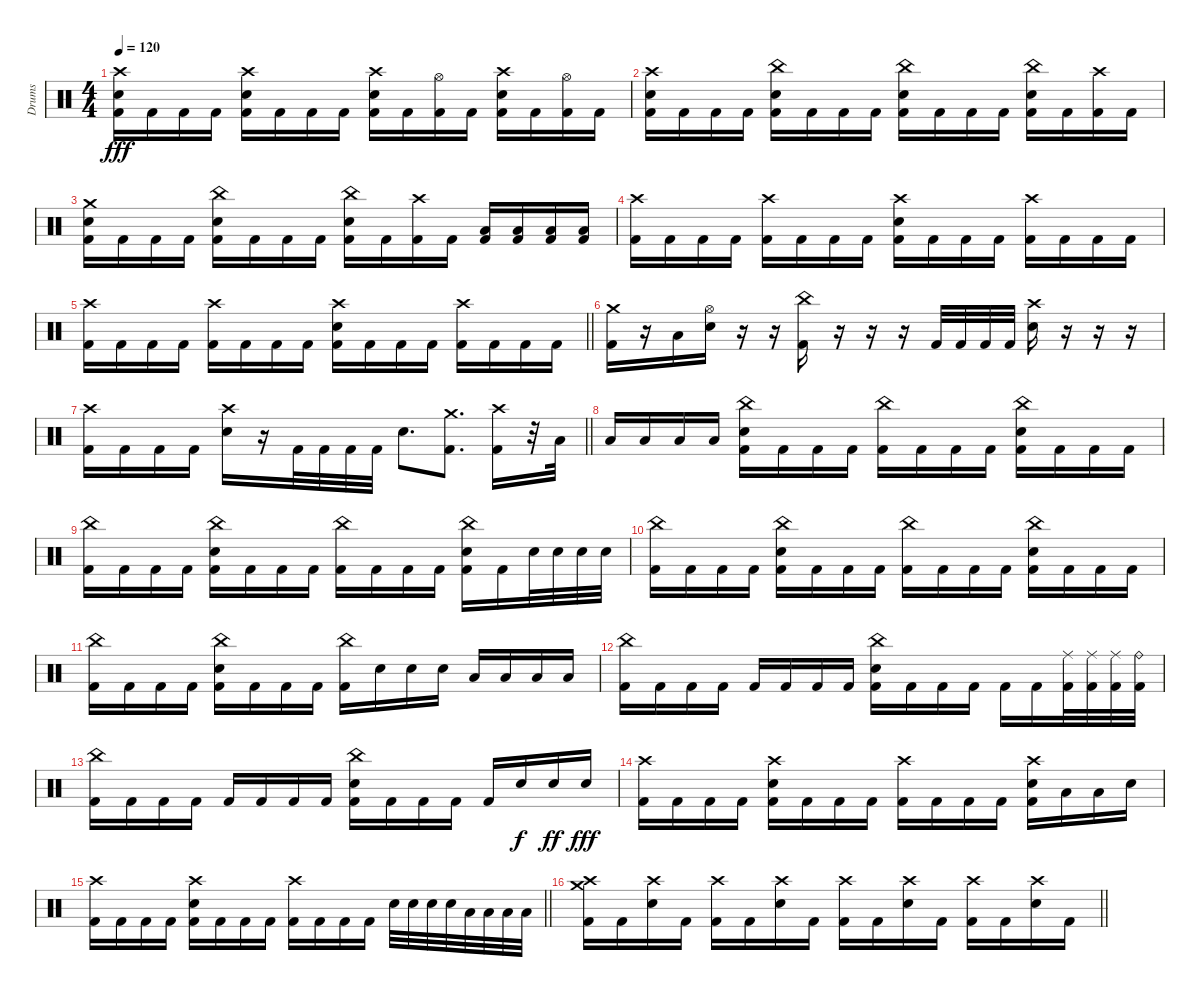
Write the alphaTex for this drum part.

\track ("Drums" "Drums") {instrument percussion}
\staff {score}
\articulation defaults
\ts (4 4)
\tempo 120
\clef neutral
\ks c
("Crash high (hit)" "Electric Snare (hit)" "Kick (hit) 2").16{dy fff} "Kick (hit) 2".16 "Kick (hit) 2".16 "Kick (hit) 2".16 ("Crash high (hit)" "Electric Snare (hit)" "Kick (hit) 2").16 "Kick (hit) 2".16 "Kick (hit) 2".16 "Kick (hit) 2".16 ("Crash high (hit)" "Electric Snare (hit)" "Kick (hit) 2").16 "Kick (hit) 2".16 ("Hi-Hat (open)" "Kick (hit) 2").16 "Kick (hit) 2".16 ("Crash high (hit)" "Electric Snare (hit)" "Kick (hit) 2").16 "Kick (hit) 2".16 ("Hi-Hat (open)" "Kick (hit) 2").16 "Kick (hit) 2".16 |
("Crash high (hit)" "Electric Snare (hit)" "Kick (hit) 2").16 "Kick (hit) 2".16 "Kick (hit) 2".16 "Kick (hit) 2".16 ("China (hit)" "Electric Snare (hit)" "Kick (hit) 2").16 "Kick (hit) 2".16 "Kick (hit) 2".16 "Kick (hit) 2".16 ("China (hit)" "Electric Snare (hit)" "Kick (hit) 2").16 "Kick (hit) 2".16 "Kick (hit) 2".16 "Kick (hit) 2".16 ("China (hit)" "Electric Snare (hit)" "Kick (hit) 2").16 "Kick (hit) 2".16 ("Crash high (hit)" "Kick (hit) 2").16 "Kick (hit) 2".16 |
("Crash medium (hit)" "Electric Snare (hit)" "Kick (hit) 2").16 "Kick (hit) 2".16 "Kick (hit) 2".16 "Kick (hit) 2".16 ("China (hit)" "Electric Snare (hit)" "Kick (hit) 2").16 "Kick (hit) 2".16 "Kick (hit) 2".16 "Kick (hit) 2".16 ("China (hit)" "Electric Snare (hit)" "Kick (hit) 2").16 "Kick (hit) 2".16 ("Crash high (hit)" "Kick (hit) 2").16 "Kick (hit) 2".16 ("Low Tom (hit)" "Kick (hit) 2").16 ("Low Tom (hit)" "Kick (hit) 2").16 ("Low Tom (hit)" "Kick (hit) 2").16 ("Low Floor Tom (hit)" "Kick (hit) 2").16 |
("Crash high (hit)" "Kick (hit) 2").16 "Kick (hit) 2".16 "Kick (hit) 2".16 "Kick (hit) 2".16 ("Crash high (hit)" "Kick (hit) 2").16 "Kick (hit) 2".16 "Kick (hit) 2".16 "Kick (hit) 2".16 ("Crash high (hit)" "Electric Snare (hit)" "Kick (hit) 2").16 "Kick (hit) 2".16 "Kick (hit) 2".16 "Kick (hit) 2".16 ("Crash high (hit)" "Kick (hit) 2").16 "Kick (hit) 2".16 "Kick (hit) 2".16 "Kick (hit) 2".16 |
\barLineRight lightlight
("Crash high (hit)" "Kick (hit) 2").16 "Kick (hit) 2".16 "Kick (hit) 2".16 "Kick (hit) 2".16 ("Crash high (hit)" "Kick (hit) 2").16 "Kick (hit) 2".16 "Kick (hit) 2".16 "Kick (hit) 2".16 ("Crash high (hit)" "Electric Snare (hit)" "Kick (hit) 2").16 "Kick (hit) 2".16 "Kick (hit) 2".16 "Kick (hit) 2".16 ("Crash high (hit)" "Kick (hit) 2").16 "Kick (hit) 2".16 "Kick (hit) 2".16 "Kick (hit) 2".16 |
\section ("" "")
("Crash medium (hit)" "Kick (hit) 2").16 r.16 "Low Tom (hit)".16 ("Hi-Hat (open)" "Electric Snare (hit)").16 r.16 r.16 ("China (hit)" "Kick (hit) 2").16 r.16 r.16 r.16 "Kick (hit) 2".32 "Kick (hit) 2".32 "Kick (hit) 2".32 "Kick (hit) 2".32 ("Crash high (hit)" "Electric Snare (hit)").16 r.16 r.16 r.16 |
\barLineRight lightlight
("Crash high (hit)" "Kick (hit) 2").16 "Kick (hit) 2".16 "Kick (hit) 2".16 "Kick (hit) 2".16 ("Crash high (hit)" "Electric Snare (hit)").16 r.16 "Kick (hit) 2".32 "Kick (hit) 2".32 "Kick (hit) 2".32 "Kick (hit) 2".32 "Electric Snare (hit)".8{d} ("Crash medium (hit)" "Kick (hit) 2").8{d} ("Crash high (hit)" "Kick (hit) 2").16 r.32 "Low Tom (hit)".32 |
\section ("" "")
"Low Tom (hit)".16 "Low Tom (hit)".16 "Low Floor Tom (hit)".16 "Low Floor Tom (hit)".16 ("China (hit)" "Electric Snare (hit)" "Kick (hit) 2").16 "Kick (hit) 2".16 "Kick (hit) 2".16 "Kick (hit) 2".16 ("China (hit)" "Kick (hit) 2").16 "Kick (hit) 2".16 "Kick (hit) 2".16 "Kick (hit) 2".16 ("China (hit)" "Electric Snare (hit)" "Kick (hit) 2").16 "Kick (hit) 2".16 "Kick (hit) 2".16 "Kick (hit) 2".16 |
("China (hit)" "Kick (hit) 2").16 "Kick (hit) 2".16 "Kick (hit) 2".16 "Kick (hit) 2".16 ("China (hit)" "Electric Snare (hit)" "Kick (hit) 2").16 "Kick (hit) 2".16 "Kick (hit) 2".16 "Kick (hit) 2".16 ("China (hit)" "Kick (hit) 2").16 "Kick (hit) 2".16 "Kick (hit) 2".16 "Kick (hit) 2".16 ("China (hit)" "Electric Snare (hit)" "Kick (hit) 2").16 "Kick (hit) 2".16 "Electric Snare (hit)".32 "Electric Snare (hit)".32 "Electric Snare (hit)".32 "Electric Snare (hit)".32 |
("China (hit)" "Kick (hit) 2").16 "Kick (hit) 2".16 "Kick (hit) 2".16 "Kick (hit) 2".16 ("China (hit)" "Electric Snare (hit)" "Kick (hit) 2").16 "Kick (hit) 2".16 "Kick (hit) 2".16 "Kick (hit) 2".16 ("China (hit)" "Kick (hit) 2").16 "Kick (hit) 2".16 "Kick (hit) 2".16 "Kick (hit) 2".16 ("China (hit)" "Electric Snare (hit)" "Kick (hit) 2").16 "Kick (hit) 2".16 "Kick (hit) 2".16 "Kick (hit) 2".16 |
("China (hit)" "Kick (hit) 2").16 "Kick (hit) 2".16 "Kick (hit) 2".16 "Kick (hit) 2".16 ("China (hit)" "Electric Snare (hit)" "Kick (hit) 2").16 "Kick (hit) 2".16 "Kick (hit) 2".16 "Kick (hit) 2".16 ("China (hit)" "Kick (hit) 2").16 "Electric Snare (hit)".16 "Electric Snare (hit)".16 "Electric Snare (hit)".16 "Low Tom (hit)".16 "Low Tom (hit)".16 "Low Floor Tom (hit)".16 "Low Floor Tom (hit)".16 |
("China (hit)" "Kick (hit) 2").16 "Kick (hit) 2".16 "Kick (hit) 2".16 "Kick (hit) 2".16 "Kick (hit) 2".16 "Kick (hit) 2".16 "Kick (hit) 2".16 "Kick (hit) 2".16 ("China (hit)" "Electric Snare (hit)" "Kick (hit) 2").16 "Kick (hit) 2".16 "Kick (hit) 2".16 "Kick (hit) 2".16 "Kick (hit) 2".16 "Kick (hit) 2".16 ("Ride (middle)" "Kick (hit) 2").32 ("Ride (middle)" "Kick (hit) 2").32 ("Ride (middle)" "Kick (hit) 2").32 ("Ride (bell)" "Kick (hit) 2").32 |
("China (hit)" "Kick (hit) 2").16 "Kick (hit) 2".16 "Kick (hit) 2".16 "Kick (hit) 2".16 "Kick (hit) 2".16 "Kick (hit) 2".16 "Kick (hit) 2".16 "Kick (hit) 2".16 ("China (hit)" "Electric Snare (hit)" "Kick (hit) 2").16 "Kick (hit) 2".16 "Kick (hit) 2".16 "Kick (hit) 2".16 "Kick (hit) 2".16 "Electric Snare (hit)".16{dy f} "Electric Snare (hit)".16{dy ff} "Electric Snare (hit)".16{dy fff} |
("Crash high (hit)" "Kick (hit) 2").16 "Kick (hit) 2".16 "Kick (hit) 2".16 "Kick (hit) 2".16 ("Crash high (hit)" "Electric Snare (hit)" "Kick (hit) 2").16 "Kick (hit) 2".16 "Kick (hit) 2".16 "Kick (hit) 2".16 ("Crash high (hit)" "Kick (hit) 2").16 "Kick (hit) 2".16 "Kick (hit) 2".16 "Kick (hit) 2".16 ("Crash high (hit)" "Electric Snare (hit)" "Kick (hit) 2").16 "Low Tom (hit)".16 "Low Floor Tom (hit)".16 "Electric Snare (hit)".16 |
\barLineRight lightlight
("Crash high (hit)" "Kick (hit) 2").16 "Kick (hit) 2".16 "Kick (hit) 2".16 "Kick (hit) 2".16 ("Crash high (hit)" "Electric Snare (hit)" "Kick (hit) 2").16 "Kick (hit) 2".16 "Kick (hit) 2".16 "Kick (hit) 2".16 ("Crash high (hit)" "Kick (hit) 2").16 "Kick (hit) 2".16 "Kick (hit) 2".16 "Kick (hit) 2".16 "Electric Snare (hit)".32 "Electric Snare (hit)".32 "Electric Snare (hit)".32 "Electric Snare (hit)".32 "Low Tom (hit)".32 "Low Tom (hit)".32 "Low Tom (hit)".32 "Low Tom (hit)".32 |
\section ("" "")
\barLineRight lightlight
("Crash high (hit)" "Crash medium (hit)" "Kick (hit) 2").16 "Kick (hit) 2".16 ("Crash high (hit)" "Electric Snare (hit)").16 "Kick (hit) 2".16 ("Crash high (hit)" "Kick (hit) 2").16 "Kick (hit) 2".16 ("Crash high (hit)" "Electric Snare (hit)").16 "Kick (hit) 2".16 ("Crash high (hit)" "Kick (hit) 2").16 "Kick (hit) 2".16 ("Crash high (hit)" "Electric Snare (hit)").16 "Kick (hit) 2".16 ("Crash high (hit)" "Kick (hit) 2").16 "Kick (hit) 2".16 ("Crash high (hit)" "Electric Snare (hit)").16 "Kick (hit) 2".16
